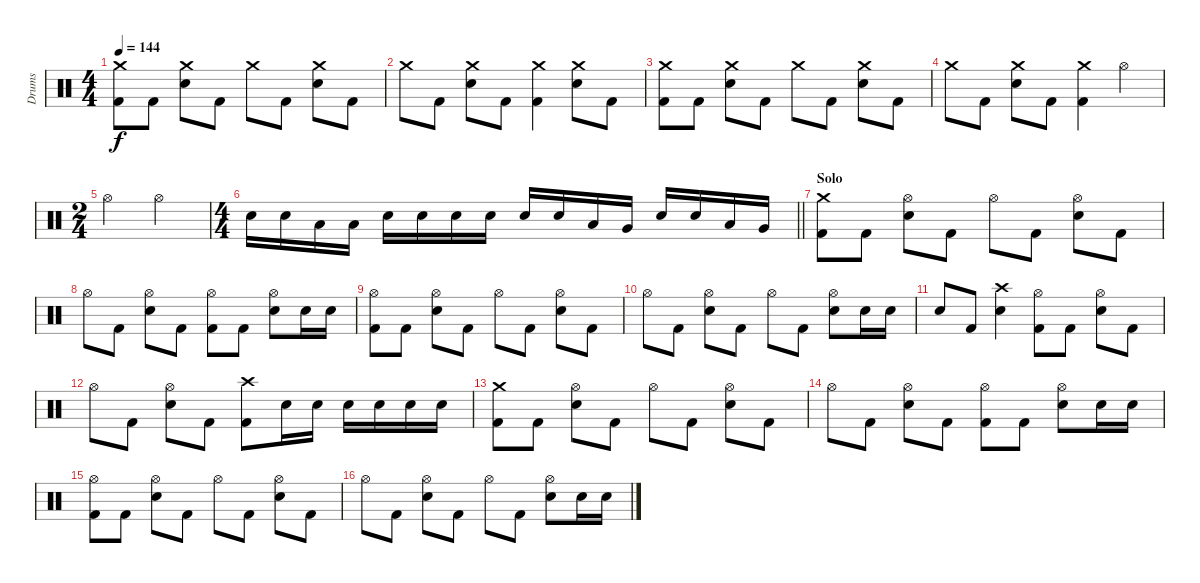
\track ("Drums" "Drums") {instrument percussion}
\staff {score}
\articulation defaults
\ts (4 4)
\tempo 144
\clef neutral
\ks c
("Crash medium (hit)" "Kick (hit) 2").8{dy f} "Kick (hit) 2".8 ("Crash medium (hit)" "Electric Snare (hit)").8 "Kick (hit) 2".8 "Crash medium (hit)".8 "Kick (hit) 2".8 ("Crash medium (hit)" "Electric Snare (hit)").8 "Kick (hit) 2".8 |
"Crash medium (hit)".8 "Kick (hit) 2".8 ("Crash medium (hit)" "Electric Snare (hit)").8 "Kick (hit) 2".8 ("Crash medium (hit)" "Kick (hit) 2").4 ("Crash medium (hit)" "Electric Snare (hit)").8 "Kick (hit) 2".8 |
("Crash medium (hit)" "Kick (hit) 2").8 "Kick (hit) 2".8 ("Crash medium (hit)" "Electric Snare (hit)").8 "Kick (hit) 2".8 "Crash medium (hit)".8 "Kick (hit) 2".8 ("Crash medium (hit)" "Electric Snare (hit)").8 "Kick (hit) 2".8 |
"Crash medium (hit)".8 "Kick (hit) 2".8 ("Crash medium (hit)" "Electric Snare (hit)").8 "Kick (hit) 2".8 ("Crash medium (hit)" "Kick (hit) 2").4 "Hi-Hat (open)".4 |
\ts (2 4)
"Hi-Hat (open)".4 "Hi-Hat (open)".4 |
\ts (4 4)
\barLineRight lightlight "Electric Snare (hit)".16 "Electric Snare (hit)".16 "Low Tom (hit)".16 "Low Tom (hit)".16 "Electric Snare (hit)".16 "Electric Snare (hit)".16 "Electric Snare (hit)".16 "Electric Snare (hit)".16 "Electric Snare (hit)".16 "Electric Snare (hit)".16 "Low Tom (hit)".16 "Very Low Tom (hit)".16 "Electric Snare (hit)".16 "Electric Snare (hit)".16 "Low Tom (hit)".16 "Very Low Tom (hit)".16
|
\section ("" "Solo")
("Crash medium (hit)" "Kick (hit) 2").8 "Kick (hit) 2".8 ("Hi-Hat (open)" "Electric Snare (hit)").8 "Kick (hit) 2".8 "Hi-Hat (open)".8 "Kick (hit) 2".8 ("Hi-Hat (open)" "Electric Snare (hit)").8 "Kick (hit) 2".8 |
"Hi-Hat (open)".8 "Kick (hit) 2".8 ("Hi-Hat (open)" "Electric Snare (hit)").8 "Kick (hit) 2".8 ("Hi-Hat (open)" "Kick (hit) 2").8 "Kick (hit) 2".8 ("Hi-Hat (open)" "Electric Snare (hit)").8 "Electric Snare (hit)".16 "Electric Snare (hit)".16 |
("Hi-Hat (open)" "Kick (hit) 2").8 "Kick (hit) 2".8 ("Hi-Hat (open)" "Electric Snare (hit)").8 "Kick (hit) 2".8 "Hi-Hat (open)".8 "Kick (hit) 2".8 ("Hi-Hat (open)" "Electric Snare (hit)").8 "Kick (hit) 2".8 |
"Hi-Hat (open)".8 "Kick (hit) 2".8 ("Hi-Hat (open)" "Electric Snare (hit)").8 "Kick (hit) 2".8 "Hi-Hat (open)".8 "Kick (hit) 2".8 ("Hi-Hat (open)" "Electric Snare (hit)").8 "Electric Snare (hit)".16 "Electric Snare (hit)".16 |
"Electric Snare (hit)".8 "Kick (hit) 2".8 ("Crash high (hit)" "Electric Snare (hit)").4 ("Hi-Hat (open)" "Kick (hit) 2").8 "Kick (hit) 2".8 ("Hi-Hat (open)" "Electric Snare (hit)").8 "Kick (hit) 2".8 |
"Hi-Hat (open)".8 "Kick (hit) 2".8 ("Hi-Hat (open)" "Electric Snare (hit)").8 "Kick (hit) 2".8 ("Crash high (hit)" "Kick (hit) 2").8 "Electric Snare (hit)".16 "Electric Snare (hit)".16 "Electric Snare (hit)".16 "Electric Snare (hit)".16 "Electric Snare (hit)".16 "Electric Snare (hit)".16 |
("Crash medium (hit)" "Kick (hit) 2").8 "Kick (hit) 2".8 ("Hi-Hat (open)" "Electric Snare (hit)").8 "Kick (hit) 2".8 "Hi-Hat (open)".8 "Kick (hit) 2".8 ("Hi-Hat (open)" "Electric Snare (hit)").8 "Kick (hit) 2".8 |
"Hi-Hat (open)".8 "Kick (hit) 2".8 ("Hi-Hat (open)" "Electric Snare (hit)").8 "Kick (hit) 2".8 ("Hi-Hat (open)" "Kick (hit) 2").8 "Kick (hit) 2".8 ("Hi-Hat (open)" "Electric Snare (hit)").8 "Electric Snare (hit)".16 "Electric Snare (hit)".16 |
("Hi-Hat (open)" "Kick (hit) 2").8 "Kick (hit) 2".8 ("Hi-Hat (open)" "Electric Snare (hit)").8 "Kick (hit) 2".8 "Hi-Hat (open)".8 "Kick (hit) 2".8 ("Hi-Hat (open)" "Electric Snare (hit)").8 "Kick (hit) 2".8 |
"Hi-Hat (open)".8 "Kick (hit) 2".8 ("Hi-Hat (open)" "Electric Snare (hit)").8 "Kick (hit) 2".8 "Hi-Hat (open)".8 "Kick (hit) 2".8 ("Hi-Hat (open)" "Electric Snare (hit)").8 "Electric Snare (hit)".16 "Electric Snare (hit)".16
